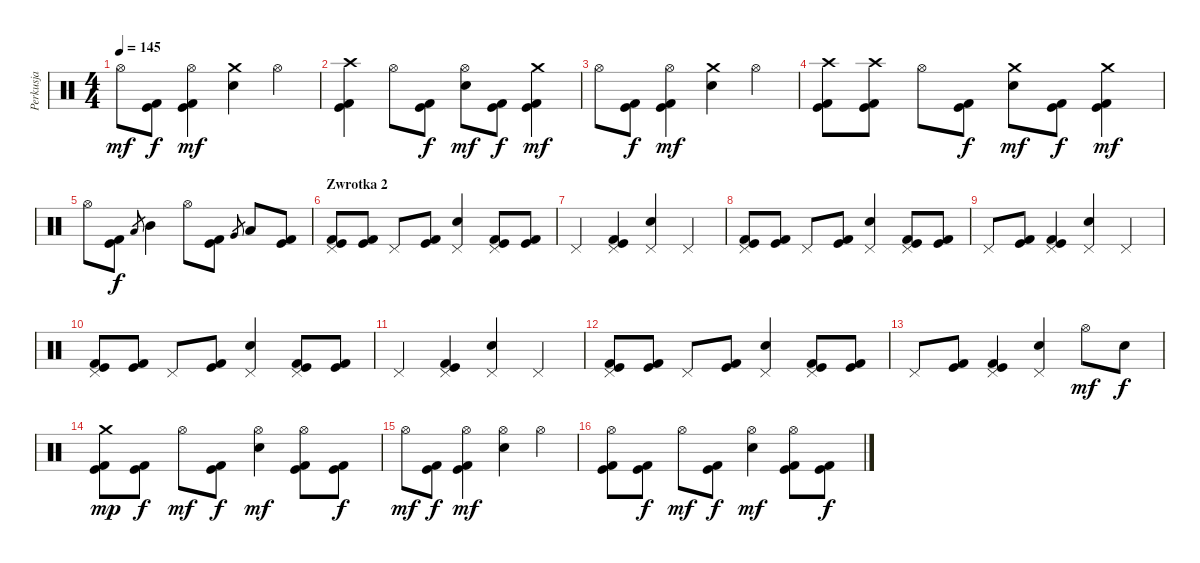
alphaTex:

\track ("Perkusja" "Perkusja") {instrument percussion}
\staff {score}
\articulation defaults
\ts (4 4)
\tempo 145
\clef neutral
\ks c "Hi-Hat (open)".8{dy mf}
("Kick (hit) 2" "Kick (hit)").8{dy f} ("Kick (hit) 2" "Kick (hit)" "Hi-Hat (open)").4{dy mf} ("Snare (hit) 2" "Crash medium (hit)").4 "Hi-Hat (open)".4 |
("Kick (hit) 2" "Kick (hit)" "Crash high (hit)").4 "Hi-Hat (open)".8 ("Kick (hit) 2" "Kick (hit)").8{dy f} ("Snare (hit) 2" "Hi-Hat (open)").8{dy mf} ("Kick (hit) 2" "Kick (hit)").8{dy f} ("Kick (hit)" "Kick (hit) 2" "Crash medium (hit)").4{dy mf} |
"Hi-Hat (open)".8 ("Kick (hit) 2" "Kick (hit)").8{dy f} ("Kick (hit) 2" "Kick (hit)" "Hi-Hat (open)").4{dy mf} ("Snare (hit) 2" "Crash medium (hit)").4 "Hi-Hat (open)".4 |
("Kick (hit) 2" "Kick (hit)" "Crash high (hit)").8 ("Kick (hit) 2" "Kick (hit)" "Crash high (hit)").8 "Hi-Hat (open)".8 ("Kick (hit) 2" "Kick (hit)").8{dy f} ("Snare (hit) 2" "Crash medium (hit)").8{dy mf} ("Kick (hit) 2" "Kick (hit)").8{dy f} ("Kick (hit)" "Kick (hit) 2" "Crash medium (hit)").4{dy mf} |
"Hi-Hat (open)".8 ("Kick (hit) 2" "Kick (hit)").8{dy f} "Low Tom (hit)".8{gr} "Mid Tom (hit)".4 "Hi-Hat (open)".8 ("Kick (hit) 2" "Kick (hit)").8 "Very Low Tom (hit)".8{gr} "Low Tom (hit)".8 ("Kick (hit) 2" "Kick (hit)").8 |
\section ("" "Zwrotka 2")
("Kick (hit) 2" "Kick (hit)" "Pedal Hi-Hat (hit)").8 ("Kick (hit) 2" "Kick (hit)").8 "Pedal Hi-Hat (hit)".8 ("Kick (hit) 2" "Kick (hit)").8 ("Snare (hit) 2" "Pedal Hi-Hat (hit)").4 ("Kick (hit) 2" "Kick (hit)" "Pedal Hi-Hat (hit)").8 ("Kick (hit) 2" "Kick (hit)").8 |
"Pedal Hi-Hat (hit)".4 ("Kick (hit) 2" "Kick (hit)" "Pedal Hi-Hat (hit)").4 ("Snare (hit) 2" "Pedal Hi-Hat (hit)").4 "Pedal Hi-Hat (hit)".4 |
("Kick (hit) 2" "Kick (hit)" "Pedal Hi-Hat (hit)").8 ("Kick (hit) 2" "Kick (hit)").8 "Pedal Hi-Hat (hit)".8 ("Kick (hit) 2" "Kick (hit)").8 ("Snare (hit) 2" "Pedal Hi-Hat (hit)").4 ("Kick (hit) 2" "Kick (hit)" "Pedal Hi-Hat (hit)").8 ("Kick (hit) 2" "Kick (hit)").8 |
"Pedal Hi-Hat (hit)".8 ("Kick (hit) 2" "Kick (hit)").8 ("Kick (hit) 2" "Kick (hit)" "Pedal Hi-Hat (hit)").4 ("Snare (hit) 2" "Pedal Hi-Hat (hit)").4 "Pedal Hi-Hat (hit)".4 |
("Kick (hit) 2" "Kick (hit)" "Pedal Hi-Hat (hit)").8 ("Kick (hit) 2" "Kick (hit)").8 "Pedal Hi-Hat (hit)".8 ("Kick (hit) 2" "Kick (hit)").8 ("Snare (hit) 2" "Pedal Hi-Hat (hit)").4 ("Kick (hit) 2" "Kick (hit)" "Pedal Hi-Hat (hit)").8 ("Kick (hit) 2" "Kick (hit)").8 |
"Pedal Hi-Hat (hit)".4 ("Kick (hit) 2" "Kick (hit)" "Pedal Hi-Hat (hit)").4 ("Snare (hit) 2" "Pedal Hi-Hat (hit)").4 "Pedal Hi-Hat (hit)".4 |
("Kick (hit) 2" "Kick (hit)" "Pedal Hi-Hat (hit)").8 ("Kick (hit) 2" "Kick (hit)").8 "Pedal Hi-Hat (hit)".8 ("Kick (hit) 2" "Kick (hit)").8 ("Snare (hit) 2" "Pedal Hi-Hat (hit)").4 ("Kick (hit) 2" "Kick (hit)" "Pedal Hi-Hat (hit)").8 ("Kick (hit) 2" "Kick (hit)").8 |
"Pedal Hi-Hat (hit)".8 ("Kick (hit) 2" "Kick (hit)").8 ("Kick (hit) 2" "Kick (hit)" "Pedal Hi-Hat (hit)").4 ("Snare (hit) 2" "Pedal Hi-Hat (hit)").4 "Hi-Hat (open)".8{dy mf} "Snare (hit) 2".8{dy f} |
("Kick (hit) 2" "Kick (hit)" "Crash medium (hit)").8{dy mp} ("Kick (hit) 2" "Kick (hit)").8{dy f} "Hi-Hat (open)".8{dy mf} ("Kick (hit) 2" "Kick (hit)").8{dy f} ("Snare (hit) 2" "Hi-Hat (open)").4{dy mf} ("Kick (hit) 2" "Kick (hit)" "Hi-Hat (open)").8 ("Kick (hit) 2" "Kick (hit)").8{dy f} |
"Hi-Hat (open)".8{dy mf} ("Kick (hit) 2" "Kick (hit)").8{dy f} ("Kick (hit) 2" "Kick (hit)" "Hi-Hat (open)").4{dy mf} ("Snare (hit) 2" "Hi-Hat (open)").4 "Hi-Hat (open)".4 |
("Kick (hit) 2" "Kick (hit)" "Hi-Hat (open)").8 ("Kick (hit) 2" "Kick (hit)").8{dy f} "Hi-Hat (open)".8{dy mf} ("Kick (hit) 2" "Kick (hit)").8{dy f} ("Snare (hit) 2" "Hi-Hat (open)").4{dy mf} ("Kick (hit) 2" "Kick (hit)" "Hi-Hat (open)").8 ("Kick (hit) 2" "Kick (hit)").8{dy f}
